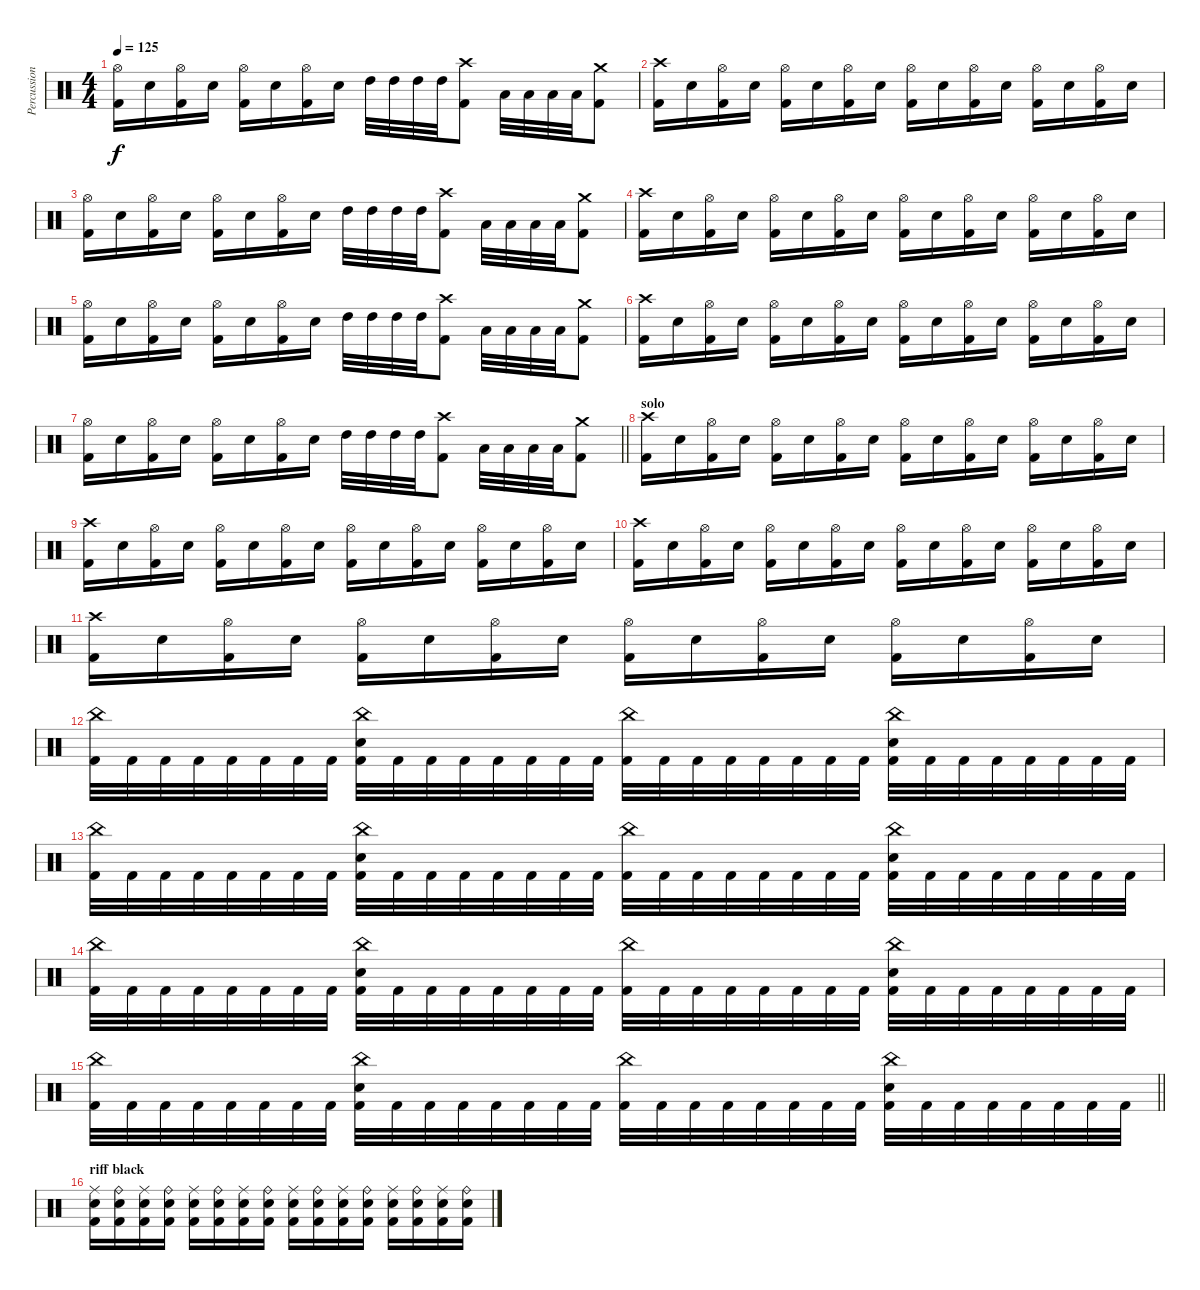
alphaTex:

\track ("Percussions" "Percussion") {instrument percussion}
\staff {score}
\articulation defaults
\ts (4 4)
\tempo 125
\clef neutral
\ks c
("Kick (hit) 2" "Hi-Hat (open)").16{dy f} "Electric Snare (hit)".16 ("Kick (hit) 2" "Hi-Hat (open)").16 "Electric Snare (hit)".16 ("Kick (hit) 2" "Hi-Hat (open)").16 "Electric Snare (hit)".16 ("Kick (hit) 2" "Hi-Hat (open)").16 "Electric Snare (hit)".16 "High Tom (hit)".32 "High Tom (hit)".32 "High Tom (hit)".32 "High Tom (hit)".32 ("Kick (hit) 2" "Crash high (hit)").8 "Low Tom (hit)".32 "Low Tom (hit)".32 "Low Tom (hit)".32 "Low Tom (hit)".32 ("Kick (hit) 2" "Crash medium (hit)").8 |
("Kick (hit) 2" "Crash high (hit)").16 "Electric Snare (hit)".16 ("Kick (hit) 2" "Hi-Hat (open)").16 "Electric Snare (hit)".16 ("Kick (hit) 2" "Hi-Hat (open)").16 "Electric Snare (hit)".16 ("Kick (hit) 2" "Hi-Hat (open)").16 "Electric Snare (hit)".16 ("Kick (hit) 2" "Hi-Hat (open)").16 "Electric Snare (hit)".16 ("Kick (hit) 2" "Hi-Hat (open)").16 "Electric Snare (hit)".16 ("Kick (hit) 2" "Hi-Hat (open)").16 "Electric Snare (hit)".16 ("Kick (hit) 2" "Hi-Hat (open)").16 "Electric Snare (hit)".16 |
("Kick (hit) 2" "Hi-Hat (open)").16 "Electric Snare (hit)".16 ("Kick (hit) 2" "Hi-Hat (open)").16 "Electric Snare (hit)".16 ("Kick (hit) 2" "Hi-Hat (open)").16 "Electric Snare (hit)".16 ("Kick (hit) 2" "Hi-Hat (open)").16 "Electric Snare (hit)".16 "High Tom (hit)".32 "High Tom (hit)".32 "High Tom (hit)".32 "High Tom (hit)".32 ("Kick (hit) 2" "Crash high (hit)").8 "Low Tom (hit)".32 "Low Tom (hit)".32 "Low Tom (hit)".32 "Low Tom (hit)".32 ("Kick (hit) 2" "Crash medium (hit)").8 |
("Kick (hit) 2" "Crash high (hit)").16 "Electric Snare (hit)".16 ("Kick (hit) 2" "Hi-Hat (open)").16 "Electric Snare (hit)".16 ("Kick (hit) 2" "Hi-Hat (open)").16 "Electric Snare (hit)".16 ("Kick (hit) 2" "Hi-Hat (open)").16 "Electric Snare (hit)".16 ("Kick (hit) 2" "Hi-Hat (open)").16 "Electric Snare (hit)".16 ("Kick (hit) 2" "Hi-Hat (open)").16 "Electric Snare (hit)".16 ("Kick (hit) 2" "Hi-Hat (open)").16 "Electric Snare (hit)".16 ("Kick (hit) 2" "Hi-Hat (open)").16 "Electric Snare (hit)".16 |
("Kick (hit) 2" "Hi-Hat (open)").16 "Electric Snare (hit)".16 ("Kick (hit) 2" "Hi-Hat (open)").16 "Electric Snare (hit)".16 ("Kick (hit) 2" "Hi-Hat (open)").16 "Electric Snare (hit)".16 ("Kick (hit) 2" "Hi-Hat (open)").16 "Electric Snare (hit)".16 "High Tom (hit)".32 "High Tom (hit)".32 "High Tom (hit)".32 "High Tom (hit)".32 ("Kick (hit) 2" "Crash high (hit)").8 "Low Tom (hit)".32 "Low Tom (hit)".32 "Low Tom (hit)".32 "Low Tom (hit)".32 ("Kick (hit) 2" "Crash medium (hit)").8 |
("Kick (hit) 2" "Crash high (hit)").16 "Electric Snare (hit)".16 ("Kick (hit) 2" "Hi-Hat (open)").16 "Electric Snare (hit)".16 ("Kick (hit) 2" "Hi-Hat (open)").16 "Electric Snare (hit)".16 ("Kick (hit) 2" "Hi-Hat (open)").16 "Electric Snare (hit)".16 ("Kick (hit) 2" "Hi-Hat (open)").16 "Electric Snare (hit)".16 ("Kick (hit) 2" "Hi-Hat (open)").16 "Electric Snare (hit)".16 ("Kick (hit) 2" "Hi-Hat (open)").16 "Electric Snare (hit)".16 ("Kick (hit) 2" "Hi-Hat (open)").16 "Electric Snare (hit)".16 |
\barLineRight lightlight
("Kick (hit) 2" "Hi-Hat (open)").16 "Electric Snare (hit)".16 ("Kick (hit) 2" "Hi-Hat (open)").16 "Electric Snare (hit)".16 ("Kick (hit) 2" "Hi-Hat (open)").16 "Electric Snare (hit)".16 ("Kick (hit) 2" "Hi-Hat (open)").16 "Electric Snare (hit)".16 "High Tom (hit)".32 "High Tom (hit)".32 "High Tom (hit)".32 "High Tom (hit)".32 ("Kick (hit) 2" "Crash high (hit)").8 "Low Tom (hit)".32 "Low Tom (hit)".32 "Low Tom (hit)".32 "Low Tom (hit)".32 ("Kick (hit) 2" "Crash medium (hit)").8 |
\section ("" "solo")
("Kick (hit) 2" "Crash high (hit)").16 "Electric Snare (hit)".16 ("Kick (hit) 2" "Hi-Hat (open)").16 "Electric Snare (hit)".16 ("Kick (hit) 2" "Hi-Hat (open)").16 "Electric Snare (hit)".16 ("Kick (hit) 2" "Hi-Hat (open)").16 "Electric Snare (hit)".16 ("Kick (hit) 2" "Hi-Hat (open)").16 "Electric Snare (hit)".16 ("Kick (hit) 2" "Hi-Hat (open)").16 "Electric Snare (hit)".16 ("Kick (hit) 2" "Hi-Hat (open)").16 "Electric Snare (hit)".16 ("Kick (hit) 2" "Hi-Hat (open)").16 "Electric Snare (hit)".16 |
("Kick (hit) 2" "Crash high (hit)").16 "Electric Snare (hit)".16 ("Kick (hit) 2" "Hi-Hat (open)").16 "Electric Snare (hit)".16 ("Kick (hit) 2" "Hi-Hat (open)").16 "Electric Snare (hit)".16 ("Kick (hit) 2" "Hi-Hat (open)").16 "Electric Snare (hit)".16 ("Kick (hit) 2" "Hi-Hat (open)").16 "Electric Snare (hit)".16 ("Kick (hit) 2" "Hi-Hat (open)").16 "Electric Snare (hit)".16 ("Kick (hit) 2" "Hi-Hat (open)").16 "Electric Snare (hit)".16 ("Kick (hit) 2" "Hi-Hat (open)").16 "Electric Snare (hit)".16 |
("Kick (hit) 2" "Crash high (hit)").16 "Electric Snare (hit)".16 ("Kick (hit) 2" "Hi-Hat (open)").16 "Electric Snare (hit)".16 ("Kick (hit) 2" "Hi-Hat (open)").16 "Electric Snare (hit)".16 ("Kick (hit) 2" "Hi-Hat (open)").16 "Electric Snare (hit)".16 ("Kick (hit) 2" "Hi-Hat (open)").16 "Electric Snare (hit)".16 ("Kick (hit) 2" "Hi-Hat (open)").16 "Electric Snare (hit)".16 ("Kick (hit) 2" "Hi-Hat (open)").16 "Electric Snare (hit)".16 ("Kick (hit) 2" "Hi-Hat (open)").16 "Electric Snare (hit)".16 |
("Kick (hit) 2" "Crash high (hit)").16 "Electric Snare (hit)".16 ("Kick (hit) 2" "Hi-Hat (open)").16 "Electric Snare (hit)".16 ("Kick (hit) 2" "Hi-Hat (open)").16 "Electric Snare (hit)".16 ("Kick (hit) 2" "Hi-Hat (open)").16 "Electric Snare (hit)".16 ("Kick (hit) 2" "Hi-Hat (open)").16 "Electric Snare (hit)".16 ("Kick (hit) 2" "Hi-Hat (open)").16 "Electric Snare (hit)".16 ("Kick (hit) 2" "Hi-Hat (open)").16 "Electric Snare (hit)".16 ("Kick (hit) 2" "Hi-Hat (open)").16 "Electric Snare (hit)".16 |
("Kick (hit) 2" "China (hit)").32 "Kick (hit) 2".32 "Kick (hit) 2".32 "Kick (hit) 2".32 "Kick (hit) 2".32 "Kick (hit) 2".32 "Kick (hit) 2".32 "Kick (hit) 2".32 ("Kick (hit) 2" "Electric Snare (hit)" "China (hit)").32 "Kick (hit) 2".32 "Kick (hit) 2".32 "Kick (hit) 2".32 "Kick (hit) 2".32 "Kick (hit) 2".32 "Kick (hit) 2".32 "Kick (hit) 2".32 ("Kick (hit) 2" "China (hit)").32 "Kick (hit) 2".32 "Kick (hit) 2".32 "Kick (hit) 2".32 "Kick (hit) 2".32 "Kick (hit) 2".32 "Kick (hit) 2".32 "Kick (hit) 2".32 ("Kick (hit) 2" "Electric Snare (hit)" "China (hit)").32 "Kick (hit) 2".32 "Kick (hit) 2".32 "Kick (hit) 2".32 "Kick (hit) 2".32 "Kick (hit) 2".32 "Kick (hit) 2".32 "Kick (hit) 2".32 |
("Kick (hit) 2" "China (hit)").32 "Kick (hit) 2".32 "Kick (hit) 2".32 "Kick (hit) 2".32 "Kick (hit) 2".32 "Kick (hit) 2".32 "Kick (hit) 2".32 "Kick (hit) 2".32 ("Kick (hit) 2" "Electric Snare (hit)" "China (hit)").32 "Kick (hit) 2".32 "Kick (hit) 2".32 "Kick (hit) 2".32 "Kick (hit) 2".32 "Kick (hit) 2".32 "Kick (hit) 2".32 "Kick (hit) 2".32 ("Kick (hit) 2" "China (hit)").32 "Kick (hit) 2".32 "Kick (hit) 2".32 "Kick (hit) 2".32 "Kick (hit) 2".32 "Kick (hit) 2".32 "Kick (hit) 2".32 "Kick (hit) 2".32 ("Kick (hit) 2" "Electric Snare (hit)" "China (hit)").32 "Kick (hit) 2".32 "Kick (hit) 2".32 "Kick (hit) 2".32 "Kick (hit) 2".32 "Kick (hit) 2".32 "Kick (hit) 2".32 "Kick (hit) 2".32 |
("Kick (hit) 2" "China (hit)").32 "Kick (hit) 2".32 "Kick (hit) 2".32 "Kick (hit) 2".32 "Kick (hit) 2".32 "Kick (hit) 2".32 "Kick (hit) 2".32 "Kick (hit) 2".32 ("Kick (hit) 2" "Electric Snare (hit)" "China (hit)").32 "Kick (hit) 2".32 "Kick (hit) 2".32 "Kick (hit) 2".32 "Kick (hit) 2".32 "Kick (hit) 2".32 "Kick (hit) 2".32 "Kick (hit) 2".32 ("Kick (hit) 2" "China (hit)").32 "Kick (hit) 2".32 "Kick (hit) 2".32 "Kick (hit) 2".32 "Kick (hit) 2".32 "Kick (hit) 2".32 "Kick (hit) 2".32 "Kick (hit) 2".32 ("Kick (hit) 2" "Electric Snare (hit)" "China (hit)").32 "Kick (hit) 2".32 "Kick (hit) 2".32 "Kick (hit) 2".32 "Kick (hit) 2".32 "Kick (hit) 2".32 "Kick (hit) 2".32 "Kick (hit) 2".32 |
\barLineRight lightlight
("Kick (hit) 2" "China (hit)").32 "Kick (hit) 2".32 "Kick (hit) 2".32 "Kick (hit) 2".32 "Kick (hit) 2".32 "Kick (hit) 2".32 "Kick (hit) 2".32 "Kick (hit) 2".32 ("Kick (hit) 2" "Electric Snare (hit)" "China (hit)").32 "Kick (hit) 2".32 "Kick (hit) 2".32 "Kick (hit) 2".32 "Kick (hit) 2".32 "Kick (hit) 2".32 "Kick (hit) 2".32 "Kick (hit) 2".32 ("Kick (hit) 2" "China (hit)").32 "Kick (hit) 2".32 "Kick (hit) 2".32 "Kick (hit) 2".32 "Kick (hit) 2".32 "Kick (hit) 2".32 "Kick (hit) 2".32 "Kick (hit) 2".32 ("Kick (hit) 2" "Electric Snare (hit)" "China (hit)").32 "Kick (hit) 2".32 "Kick (hit) 2".32 "Kick (hit) 2".32 "Kick (hit) 2".32 "Kick (hit) 2".32 "Kick (hit) 2".32 "Kick (hit) 2".32 |
\section ("" "riff black")
("Kick (hit) 2" "Electric Snare (hit)" "Ride (middle)").16 ("Kick (hit) 2" "Electric Snare (hit)" "Ride (bell)").16 ("Kick (hit) 2" "Electric Snare (hit)" "Ride (middle)").16 ("Kick (hit) 2" "Electric Snare (hit)" "Ride (bell)").16 ("Kick (hit) 2" "Electric Snare (hit)" "Ride (middle)").16 ("Kick (hit) 2" "Electric Snare (hit)" "Ride (bell)").16 ("Kick (hit) 2" "Electric Snare (hit)" "Ride (middle)").16 ("Kick (hit) 2" "Electric Snare (hit)" "Ride (bell)").16 ("Kick (hit) 2" "Electric Snare (hit)" "Ride (middle)").16 ("Kick (hit) 2" "Electric Snare (hit)" "Ride (bell)").16 ("Kick (hit) 2" "Electric Snare (hit)" "Ride (middle)").16 ("Kick (hit) 2" "Electric Snare (hit)" "Ride (bell)").16 ("Kick (hit) 2" "Electric Snare (hit)" "Ride (middle)").16 ("Kick (hit) 2" "Electric Snare (hit)" "Ride (bell)").16 ("Kick (hit) 2" "Electric Snare (hit)" "Ride (middle)").16 ("Kick (hit) 2" "Electric Snare (hit)" "Ride (bell)").16
